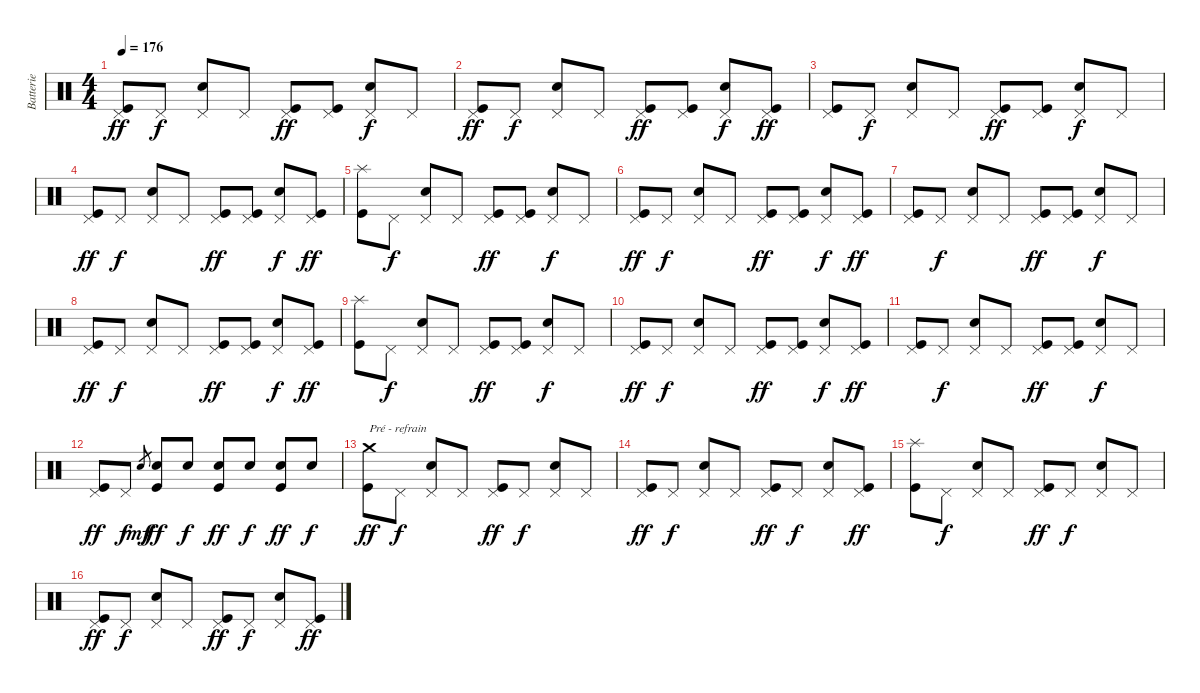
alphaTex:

\track ("Batterie" "Batterie") {instrument percussion}
\staff {score}
\articulation defaults
\ts (4 4)
\tempo 176
\clef neutral
\ks c
("Pedal Hi-Hat (hit)" "Kick (hit)").8{dy ff} "Pedal Hi-Hat (hit)".8{dy f} ("Pedal Hi-Hat (hit)" "Snare (hit) 2").8 "Pedal Hi-Hat (hit)".8 ("Pedal Hi-Hat (hit)" "Kick (hit)").8{dy ff} ("Pedal Hi-Hat (hit)" "Kick (hit)").8 ("Pedal Hi-Hat (hit)" "Snare (hit) 2").8{dy f} "Pedal Hi-Hat (hit)".8 |
("Pedal Hi-Hat (hit)" "Kick (hit)").8{dy ff} "Pedal Hi-Hat (hit)".8{dy f} ("Pedal Hi-Hat (hit)" "Snare (hit) 2").8 "Pedal Hi-Hat (hit)".8 ("Pedal Hi-Hat (hit)" "Kick (hit)").8{dy ff} ("Pedal Hi-Hat (hit)" "Kick (hit)").8 ("Pedal Hi-Hat (hit)" "Snare (hit) 2").8{dy f} ("Pedal Hi-Hat (hit)" "Kick (hit)").8{dy ff} |
("Pedal Hi-Hat (hit)" "Kick (hit)").8 "Pedal Hi-Hat (hit)".8{dy f} ("Pedal Hi-Hat (hit)" "Snare (hit) 2").8 "Pedal Hi-Hat (hit)".8 ("Pedal Hi-Hat (hit)" "Kick (hit)").8{dy ff} ("Pedal Hi-Hat (hit)" "Kick (hit)").8 ("Pedal Hi-Hat (hit)" "Snare (hit) 2").8{dy f} "Pedal Hi-Hat (hit)".8 |
("Pedal Hi-Hat (hit)" "Kick (hit)").8{dy ff} "Pedal Hi-Hat (hit)".8{dy f} ("Pedal Hi-Hat (hit)" "Snare (hit) 2").8 "Pedal Hi-Hat (hit)".8 ("Pedal Hi-Hat (hit)" "Kick (hit)").8{dy ff} ("Pedal Hi-Hat (hit)" "Kick (hit)").8 ("Pedal Hi-Hat (hit)" "Snare (hit) 2").8{dy f} ("Pedal Hi-Hat (hit)" "Kick (hit)").8{dy ff} |
("Splash (hit)" "Kick (hit)").8 "Pedal Hi-Hat (hit)".8{dy f} ("Pedal Hi-Hat (hit)" "Snare (hit) 2").8 "Pedal Hi-Hat (hit)".8 ("Pedal Hi-Hat (hit)" "Kick (hit)").8{dy ff} ("Pedal Hi-Hat (hit)" "Kick (hit)").8 ("Pedal Hi-Hat (hit)" "Snare (hit) 2").8{dy f} "Pedal Hi-Hat (hit)".8 |
("Pedal Hi-Hat (hit)" "Kick (hit)").8{dy ff} "Pedal Hi-Hat (hit)".8{dy f} ("Pedal Hi-Hat (hit)" "Snare (hit) 2").8 "Pedal Hi-Hat (hit)".8 ("Pedal Hi-Hat (hit)" "Kick (hit)").8{dy ff} ("Pedal Hi-Hat (hit)" "Kick (hit)").8 ("Pedal Hi-Hat (hit)" "Snare (hit) 2").8{dy f} ("Pedal Hi-Hat (hit)" "Kick (hit)").8{dy ff} |
("Pedal Hi-Hat (hit)" "Kick (hit)").8 "Pedal Hi-Hat (hit)".8{dy f} ("Pedal Hi-Hat (hit)" "Snare (hit) 2").8 "Pedal Hi-Hat (hit)".8 ("Pedal Hi-Hat (hit)" "Kick (hit)").8{dy ff} ("Pedal Hi-Hat (hit)" "Kick (hit)").8 ("Pedal Hi-Hat (hit)" "Snare (hit) 2").8{dy f} "Pedal Hi-Hat (hit)".8 |
("Pedal Hi-Hat (hit)" "Kick (hit)").8{dy ff} "Pedal Hi-Hat (hit)".8{dy f} ("Pedal Hi-Hat (hit)" "Snare (hit) 2").8 "Pedal Hi-Hat (hit)".8 ("Pedal Hi-Hat (hit)" "Kick (hit)").8{dy ff} ("Pedal Hi-Hat (hit)" "Kick (hit)").8 ("Pedal Hi-Hat (hit)" "Snare (hit) 2").8{dy f} ("Pedal Hi-Hat (hit)" "Kick (hit)").8{dy ff} |
("Splash (hit)" "Kick (hit)").8 "Pedal Hi-Hat (hit)".8{dy f} ("Pedal Hi-Hat (hit)" "Snare (hit) 2").8 "Pedal Hi-Hat (hit)".8 ("Pedal Hi-Hat (hit)" "Kick (hit)").8{dy ff} ("Pedal Hi-Hat (hit)" "Kick (hit)").8 ("Pedal Hi-Hat (hit)" "Snare (hit) 2").8{dy f} "Pedal Hi-Hat (hit)".8 |
("Pedal Hi-Hat (hit)" "Kick (hit)").8{dy ff} "Pedal Hi-Hat (hit)".8{dy f} ("Pedal Hi-Hat (hit)" "Snare (hit) 2").8 "Pedal Hi-Hat (hit)".8 ("Pedal Hi-Hat (hit)" "Kick (hit)").8{dy ff} ("Pedal Hi-Hat (hit)" "Kick (hit)").8 ("Pedal Hi-Hat (hit)" "Snare (hit) 2").8{dy f} ("Pedal Hi-Hat (hit)" "Kick (hit)").8{dy ff} |
("Pedal Hi-Hat (hit)" "Kick (hit)").8 "Pedal Hi-Hat (hit)".8{dy f} ("Pedal Hi-Hat (hit)" "Snare (hit) 2").8 "Pedal Hi-Hat (hit)".8 ("Pedal Hi-Hat (hit)" "Kick (hit)").8{dy ff} ("Pedal Hi-Hat (hit)" "Kick (hit)").8 ("Pedal Hi-Hat (hit)" "Snare (hit) 2").8{dy f} "Pedal Hi-Hat (hit)".8 |
("Pedal Hi-Hat (hit)" "Kick (hit)").8{dy ff} "Pedal Hi-Hat (hit)".8{dy f} "Snare (hit) 2".8{gr dy mf} ("Snare (hit) 2" "Kick (hit)").8{dy ff} "Snare (hit) 2".8{dy f} ("Snare (hit) 2" "Kick (hit)").8{dy ff} "Snare (hit) 2".8{dy f} ("Snare (hit) 2" "Kick (hit)").8{dy ff} "Snare (hit) 2".8{dy f} |
("Crash medium (hit)" "Kick (hit)").8{txt "Pré - refrain" dy ff} "Pedal Hi-Hat (hit)".8{dy f} ("Pedal Hi-Hat (hit)" "Snare (hit) 2").8 "Pedal Hi-Hat (hit)".8 ("Pedal Hi-Hat (hit)" "Kick (hit)").8{dy ff} "Pedal Hi-Hat (hit)".8{dy f} ("Pedal Hi-Hat (hit)" "Snare (hit) 2").8 "Pedal Hi-Hat (hit)".8 |
("Pedal Hi-Hat (hit)" "Kick (hit)").8{dy ff} "Pedal Hi-Hat (hit)".8{dy f} ("Pedal Hi-Hat (hit)" "Snare (hit) 2").8 "Pedal Hi-Hat (hit)".8 ("Pedal Hi-Hat (hit)" "Kick (hit)").8{dy ff} "Pedal Hi-Hat (hit)".8{dy f} ("Pedal Hi-Hat (hit)" "Snare (hit) 2").8 ("Pedal Hi-Hat (hit)" "Kick (hit)").8{dy ff} |
("Splash (hit)" "Kick (hit)").8 "Pedal Hi-Hat (hit)".8{dy f} ("Pedal Hi-Hat (hit)" "Snare (hit) 2").8 "Pedal Hi-Hat (hit)".8 ("Pedal Hi-Hat (hit)" "Kick (hit)").8{dy ff} "Pedal Hi-Hat (hit)".8{dy f} ("Pedal Hi-Hat (hit)" "Snare (hit) 2").8 "Pedal Hi-Hat (hit)".8 |
("Pedal Hi-Hat (hit)" "Kick (hit)").8{dy ff} "Pedal Hi-Hat (hit)".8{dy f} ("Pedal Hi-Hat (hit)" "Snare (hit) 2").8 "Pedal Hi-Hat (hit)".8 ("Pedal Hi-Hat (hit)" "Kick (hit)").8{dy ff} "Pedal Hi-Hat (hit)".8{dy f} ("Pedal Hi-Hat (hit)" "Snare (hit) 2").8 ("Pedal Hi-Hat (hit)" "Kick (hit)").8{dy ff}
